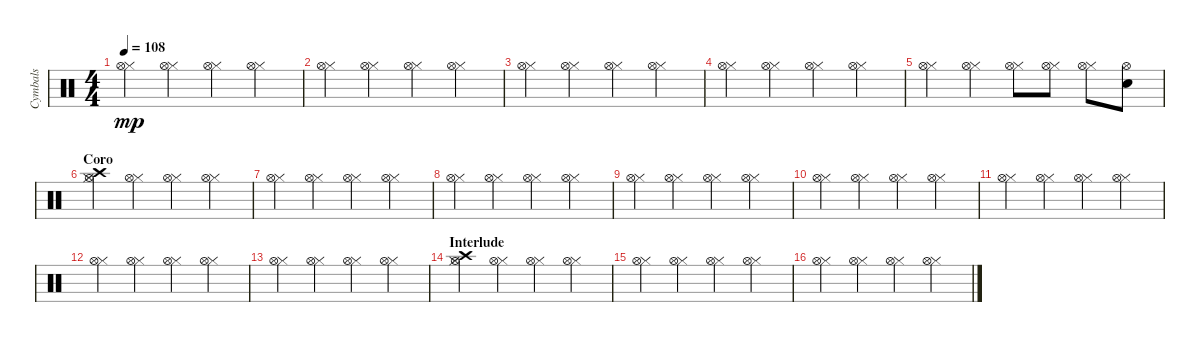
\track ("Cymbals" "Cymbals") {instrument percussion}
\staff {score}
\articulation defaults
\ts (4 4)
\tempo 108
\clef neutral
\ks c
("Hi-Hat (closed)" "Hi-Hat (open)").4{dy mp} ("Hi-Hat (closed)" "Hi-Hat (open)").4 ("Hi-Hat (closed)" "Hi-Hat (open)").4 ("Hi-Hat (closed)" "Hi-Hat (open)").4 |
("Hi-Hat (closed)" "Hi-Hat (open)").4 ("Hi-Hat (closed)" "Hi-Hat (open)").4 ("Hi-Hat (closed)" "Hi-Hat (open)").4 ("Hi-Hat (closed)" "Hi-Hat (open)").4 |
("Hi-Hat (closed)" "Hi-Hat (open)").4 ("Hi-Hat (closed)" "Hi-Hat (open)").4 ("Hi-Hat (closed)" "Hi-Hat (open)").4 ("Hi-Hat (closed)" "Hi-Hat (open)").4 |
("Hi-Hat (closed)" "Hi-Hat (open)").4 ("Hi-Hat (closed)" "Hi-Hat (open)").4 ("Hi-Hat (closed)" "Hi-Hat (open)").4 ("Hi-Hat (closed)" "Hi-Hat (open)").4 |
("Hi-Hat (closed)" "Hi-Hat (open)").4 ("Hi-Hat (closed)" "Hi-Hat (open)").4 ("Hi-Hat (closed)" "Hi-Hat (open)").8 ("Hi-Hat (closed)" "Hi-Hat (open)").8 ("Hi-Hat (closed)" "Hi-Hat (open)").8 ("Snare (hit)" "Hi-Hat (open)").8 |
\section ("" "Coro")
("Crash high (hit)" "Hi-Hat (closed)" "Hi-Hat (open)").4 ("Hi-Hat (closed)" "Hi-Hat (open)").4 ("Hi-Hat (closed)" "Hi-Hat (open)").4 ("Hi-Hat (closed)" "Hi-Hat (open)").4 |
("Hi-Hat (closed)" "Hi-Hat (open)").4 ("Hi-Hat (closed)" "Hi-Hat (open)").4 ("Hi-Hat (closed)" "Hi-Hat (open)").4 ("Hi-Hat (closed)" "Hi-Hat (open)").4 |
("Hi-Hat (closed)" "Hi-Hat (open)").4 ("Hi-Hat (closed)" "Hi-Hat (open)").4 ("Hi-Hat (closed)" "Hi-Hat (open)").4 ("Hi-Hat (closed)" "Hi-Hat (open)").4 |
("Hi-Hat (closed)" "Hi-Hat (open)").4 ("Hi-Hat (closed)" "Hi-Hat (open)").4 ("Hi-Hat (closed)" "Hi-Hat (open)").4 ("Hi-Hat (closed)" "Hi-Hat (open)").4 |
("Hi-Hat (closed)" "Hi-Hat (open)").4 ("Hi-Hat (closed)" "Hi-Hat (open)").4 ("Hi-Hat (closed)" "Hi-Hat (open)").4 ("Hi-Hat (closed)" "Hi-Hat (open)").4 |
("Hi-Hat (closed)" "Hi-Hat (open)").4 ("Hi-Hat (closed)" "Hi-Hat (open)").4 ("Hi-Hat (closed)" "Hi-Hat (open)").4 ("Hi-Hat (closed)" "Hi-Hat (open)").4 |
("Hi-Hat (closed)" "Hi-Hat (open)").4 ("Hi-Hat (closed)" "Hi-Hat (open)").4 ("Hi-Hat (closed)" "Hi-Hat (open)").4 ("Hi-Hat (closed)" "Hi-Hat (open)").4 |
("Hi-Hat (closed)" "Hi-Hat (open)").4 ("Hi-Hat (closed)" "Hi-Hat (open)").4 ("Hi-Hat (closed)" "Hi-Hat (open)").4 ("Hi-Hat (closed)" "Hi-Hat (open)").4 |
\section ("" "Interlude")
("Crash high (hit)" "Hi-Hat (closed)" "Hi-Hat (open)").4 ("Hi-Hat (closed)" "Hi-Hat (open)").4 ("Hi-Hat (closed)" "Hi-Hat (open)").4 ("Hi-Hat (closed)" "Hi-Hat (open)").4 |
("Hi-Hat (closed)" "Hi-Hat (open)").4 ("Hi-Hat (closed)" "Hi-Hat (open)").4 ("Hi-Hat (closed)" "Hi-Hat (open)").4 ("Hi-Hat (closed)" "Hi-Hat (open)").4 |
("Hi-Hat (closed)" "Hi-Hat (open)").4 ("Hi-Hat (closed)" "Hi-Hat (open)").4 ("Hi-Hat (closed)" "Hi-Hat (open)").4 ("Hi-Hat (closed)" "Hi-Hat (open)").4
